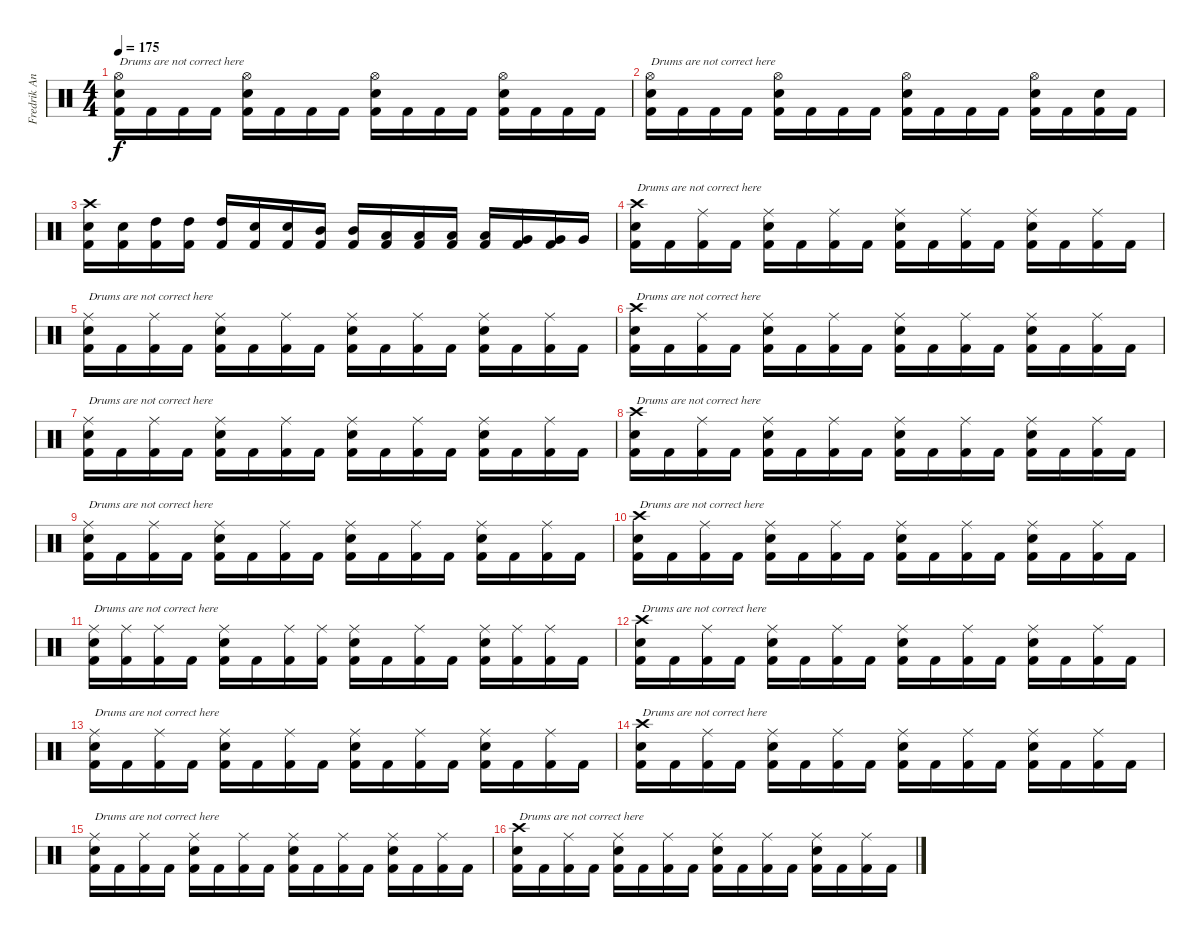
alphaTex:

\track ("Fredrik Andersson" "Fredrik An") {instrument percussion}
\staff {score}
\articulation defaults
\ts (4 4)
\tempo 175
\clef neutral
\ks c
("Hi-Hat (open)" "Electric Snare (hit)" "Kick (hit) 2").16{txt "Drums are not correct here" dy f} "Kick (hit) 2".16 "Kick (hit) 2".16 "Kick (hit) 2".16 ("Hi-Hat (open)" "Electric Snare (hit)" "Kick (hit) 2").16 "Kick (hit) 2".16 "Kick (hit) 2".16 "Kick (hit) 2".16 ("Hi-Hat (open)" "Electric Snare (hit)" "Kick (hit) 2").16 "Kick (hit) 2".16 "Kick (hit) 2".16 "Kick (hit) 2".16 ("Hi-Hat (open)" "Electric Snare (hit)" "Kick (hit) 2").16 "Kick (hit) 2".16 "Kick (hit) 2".16 "Kick (hit) 2".16 |
("Hi-Hat (open)" "Electric Snare (hit)" "Kick (hit) 2").16{txt "Drums are not correct here"} "Kick (hit) 2".16 "Kick (hit) 2".16 "Kick (hit) 2".16 ("Hi-Hat (open)" "Electric Snare (hit)" "Kick (hit) 2").16 "Kick (hit) 2".16 "Kick (hit) 2".16 "Kick (hit) 2".16 ("Hi-Hat (open)" "Electric Snare (hit)" "Kick (hit) 2").16 "Kick (hit) 2".16 "Kick (hit) 2".16 "Kick (hit) 2".16 ("Hi-Hat (open)" "Electric Snare (hit)" "Kick (hit) 2").16 "Kick (hit) 2".16 ("Electric Snare (hit)" "Kick (hit) 2").16 "Kick (hit) 2".16 |
("Crash high (hit)" "Electric Snare (hit)" "Kick (hit) 2").16 ("Electric Snare (hit)" "Kick (hit) 2").16 ("High Tom (hit)" "Kick (hit) 2").16 ("High Tom (hit)" "Kick (hit) 2").16 ("High Tom (hit)" "Kick (hit) 2").16 ("Electric Snare (hit)" "Kick (hit) 2").16 ("Electric Snare (hit)" "Kick (hit) 2").16 ("Mid Tom (hit)" "Kick (hit) 2").16 ("Mid Tom (hit)" "Kick (hit) 2").16 ("Low Tom (hit)" "Kick (hit) 2").16 ("Low Tom (hit)" "Kick (hit) 2").16 ("Low Tom (hit)" "Kick (hit) 2").16 ("Low Tom (hit)" "Kick (hit) 2").16 ("Very Low Tom (hit)" "Kick (hit) 2").16 ("Very Low Tom (hit)" "Kick (hit) 2").16 "Very Low Tom (hit)".16 |
("Crash high (hit)" "Electric Snare (hit)" "Kick (hit) 2").16{txt "Drums are not correct here"} "Kick (hit) 2".16 ("Ride (middle)" "Kick (hit) 2").16 "Kick (hit) 2".16 ("Ride (middle)" "Electric Snare (hit)" "Kick (hit) 2").16 "Kick (hit) 2".16 ("Ride (middle)" "Kick (hit) 2").16 "Kick (hit) 2".16 ("Ride (middle)" "Electric Snare (hit)" "Kick (hit) 2").16 "Kick (hit) 2".16 ("Ride (middle)" "Kick (hit) 2").16 "Kick (hit) 2".16 ("Ride (middle)" "Electric Snare (hit)" "Kick (hit) 2").16 "Kick (hit) 2".16 ("Ride (middle)" "Kick (hit) 2").16 "Kick (hit) 2".16 |
("Ride (middle)" "Electric Snare (hit)" "Kick (hit) 2").16{txt "Drums are not correct here"} "Kick (hit) 2".16 ("Ride (middle)" "Kick (hit) 2").16 "Kick (hit) 2".16 ("Ride (middle)" "Electric Snare (hit)" "Kick (hit) 2").16 "Kick (hit) 2".16 ("Ride (middle)" "Kick (hit) 2").16 "Kick (hit) 2".16 ("Ride (middle)" "Electric Snare (hit)" "Kick (hit) 2").16 "Kick (hit) 2".16 ("Ride (middle)" "Kick (hit) 2").16 "Kick (hit) 2".16 ("Ride (middle)" "Electric Snare (hit)" "Kick (hit) 2").16 "Kick (hit) 2".16 ("Ride (middle)" "Kick (hit) 2").16 "Kick (hit) 2".16 |
("Crash high (hit)" "Electric Snare (hit)" "Kick (hit) 2").16{txt "Drums are not correct here"} "Kick (hit) 2".16 ("Ride (middle)" "Kick (hit) 2").16 "Kick (hit) 2".16 ("Ride (middle)" "Electric Snare (hit)" "Kick (hit) 2").16 "Kick (hit) 2".16 ("Ride (middle)" "Kick (hit) 2").16 "Kick (hit) 2".16 ("Ride (middle)" "Electric Snare (hit)" "Kick (hit) 2").16 "Kick (hit) 2".16 ("Ride (middle)" "Kick (hit) 2").16 "Kick (hit) 2".16 ("Ride (middle)" "Electric Snare (hit)" "Kick (hit) 2").16 "Kick (hit) 2".16 ("Ride (middle)" "Kick (hit) 2").16 "Kick (hit) 2".16 |
("Ride (middle)" "Electric Snare (hit)" "Kick (hit) 2").16{txt "Drums are not correct here"} "Kick (hit) 2".16 ("Ride (middle)" "Kick (hit) 2").16 "Kick (hit) 2".16 ("Ride (middle)" "Electric Snare (hit)" "Kick (hit) 2").16 "Kick (hit) 2".16 ("Ride (middle)" "Kick (hit) 2").16 "Kick (hit) 2".16 ("Ride (middle)" "Electric Snare (hit)" "Kick (hit) 2").16 "Kick (hit) 2".16 ("Ride (middle)" "Kick (hit) 2").16 "Kick (hit) 2".16 ("Ride (middle)" "Electric Snare (hit)" "Kick (hit) 2").16 "Kick (hit) 2".16 ("Ride (middle)" "Kick (hit) 2").16 "Kick (hit) 2".16 |
("Crash high (hit)" "Electric Snare (hit)" "Kick (hit) 2").16{txt "Drums are not correct here"} "Kick (hit) 2".16 ("Ride (middle)" "Kick (hit) 2").16 "Kick (hit) 2".16 ("Ride (middle)" "Electric Snare (hit)" "Kick (hit) 2").16 "Kick (hit) 2".16 ("Ride (middle)" "Kick (hit) 2").16 "Kick (hit) 2".16 ("Ride (middle)" "Electric Snare (hit)" "Kick (hit) 2").16 "Kick (hit) 2".16 ("Ride (middle)" "Kick (hit) 2").16 "Kick (hit) 2".16 ("Ride (middle)" "Electric Snare (hit)" "Kick (hit) 2").16 "Kick (hit) 2".16 ("Ride (middle)" "Kick (hit) 2").16 "Kick (hit) 2".16 |
("Ride (middle)" "Electric Snare (hit)" "Kick (hit) 2").16{txt "Drums are not correct here"} "Kick (hit) 2".16 ("Ride (middle)" "Kick (hit) 2").16 "Kick (hit) 2".16 ("Ride (middle)" "Electric Snare (hit)" "Kick (hit) 2").16 "Kick (hit) 2".16 ("Ride (middle)" "Kick (hit) 2").16 "Kick (hit) 2".16 ("Ride (middle)" "Electric Snare (hit)" "Kick (hit) 2").16 "Kick (hit) 2".16 ("Ride (middle)" "Kick (hit) 2").16 "Kick (hit) 2".16 ("Ride (middle)" "Electric Snare (hit)" "Kick (hit) 2").16 "Kick (hit) 2".16 ("Ride (middle)" "Kick (hit) 2").16 "Kick (hit) 2".16 |
("Crash high (hit)" "Electric Snare (hit)" "Kick (hit) 2").16{txt "Drums are not correct here"} "Kick (hit) 2".16 ("Ride (middle)" "Kick (hit) 2").16 "Kick (hit) 2".16 ("Ride (middle)" "Electric Snare (hit)" "Kick (hit) 2").16 "Kick (hit) 2".16 ("Ride (middle)" "Kick (hit) 2").16 "Kick (hit) 2".16 ("Ride (middle)" "Electric Snare (hit)" "Kick (hit) 2").16 "Kick (hit) 2".16 ("Ride (middle)" "Kick (hit) 2").16 "Kick (hit) 2".16 ("Ride (middle)" "Electric Snare (hit)" "Kick (hit) 2").16 "Kick (hit) 2".16 ("Ride (middle)" "Kick (hit) 2").16 "Kick (hit) 2".16 |
("Ride (middle)" "Electric Snare (hit)" "Kick (hit) 2").16{txt "Drums are not correct here"} ("Ride (middle)" "Kick (hit) 2").16 ("Ride (middle)" "Kick (hit) 2").16 "Kick (hit) 2".16 ("Ride (middle)" "Electric Snare (hit)" "Kick (hit) 2").16 "Kick (hit) 2".16 ("Ride (middle)" "Kick (hit) 2").16 ("Ride (middle)" "Kick (hit) 2").16 ("Ride (middle)" "Electric Snare (hit)" "Kick (hit) 2").16 "Kick (hit) 2".16 ("Ride (middle)" "Kick (hit) 2").16 "Kick (hit) 2".16 ("Ride (middle)" "Electric Snare (hit)" "Kick (hit) 2").16 ("Ride (middle)" "Kick (hit) 2").16 ("Ride (middle)" "Kick (hit) 2").16 "Kick (hit) 2".16 |
("Crash high (hit)" "Electric Snare (hit)" "Kick (hit) 2").16{txt "Drums are not correct here"} "Kick (hit) 2".16 ("Ride (middle)" "Kick (hit) 2").16 "Kick (hit) 2".16 ("Ride (middle)" "Electric Snare (hit)" "Kick (hit) 2").16 "Kick (hit) 2".16 ("Ride (middle)" "Kick (hit) 2").16 "Kick (hit) 2".16 ("Ride (middle)" "Electric Snare (hit)" "Kick (hit) 2").16 "Kick (hit) 2".16 ("Ride (middle)" "Kick (hit) 2").16 "Kick (hit) 2".16 ("Ride (middle)" "Electric Snare (hit)" "Kick (hit) 2").16 "Kick (hit) 2".16 ("Ride (middle)" "Kick (hit) 2").16 "Kick (hit) 2".16 |
("Ride (middle)" "Electric Snare (hit)" "Kick (hit) 2").16{txt "Drums are not correct here"} "Kick (hit) 2".16 ("Ride (middle)" "Kick (hit) 2").16 "Kick (hit) 2".16 ("Ride (middle)" "Electric Snare (hit)" "Kick (hit) 2").16 "Kick (hit) 2".16 ("Ride (middle)" "Kick (hit) 2").16 "Kick (hit) 2".16 ("Ride (middle)" "Electric Snare (hit)" "Kick (hit) 2").16 "Kick (hit) 2".16 ("Ride (middle)" "Kick (hit) 2").16 "Kick (hit) 2".16 ("Ride (middle)" "Electric Snare (hit)" "Kick (hit) 2").16 "Kick (hit) 2".16 ("Ride (middle)" "Kick (hit) 2").16 "Kick (hit) 2".16 |
("Crash high (hit)" "Electric Snare (hit)" "Kick (hit) 2").16{txt "Drums are not correct here"} "Kick (hit) 2".16 ("Ride (middle)" "Kick (hit) 2").16 "Kick (hit) 2".16 ("Ride (middle)" "Electric Snare (hit)" "Kick (hit) 2").16 "Kick (hit) 2".16 ("Ride (middle)" "Kick (hit) 2").16 "Kick (hit) 2".16 ("Ride (middle)" "Electric Snare (hit)" "Kick (hit) 2").16 "Kick (hit) 2".16 ("Ride (middle)" "Kick (hit) 2").16 "Kick (hit) 2".16 ("Ride (middle)" "Electric Snare (hit)" "Kick (hit) 2").16 "Kick (hit) 2".16 ("Ride (middle)" "Kick (hit) 2").16 "Kick (hit) 2".16 |
("Ride (middle)" "Electric Snare (hit)" "Kick (hit) 2").16{txt "Drums are not correct here"} "Kick (hit) 2".16 ("Ride (middle)" "Kick (hit) 2").16 "Kick (hit) 2".16 ("Ride (middle)" "Electric Snare (hit)" "Kick (hit) 2").16 "Kick (hit) 2".16 ("Ride (middle)" "Kick (hit) 2").16 "Kick (hit) 2".16 ("Ride (middle)" "Electric Snare (hit)" "Kick (hit) 2").16 "Kick (hit) 2".16 ("Ride (middle)" "Kick (hit) 2").16 "Kick (hit) 2".16 ("Ride (middle)" "Electric Snare (hit)" "Kick (hit) 2").16 "Kick (hit) 2".16 ("Ride (middle)" "Kick (hit) 2").16 "Kick (hit) 2".16 |
("Crash high (hit)" "Electric Snare (hit)" "Kick (hit) 2").16{txt "Drums are not correct here"} "Kick (hit) 2".16 ("Ride (middle)" "Kick (hit) 2").16 "Kick (hit) 2".16 ("Ride (middle)" "Electric Snare (hit)" "Kick (hit) 2").16 "Kick (hit) 2".16 ("Ride (middle)" "Kick (hit) 2").16 "Kick (hit) 2".16 ("Ride (middle)" "Electric Snare (hit)" "Kick (hit) 2").16 "Kick (hit) 2".16 ("Ride (middle)" "Kick (hit) 2").16 "Kick (hit) 2".16 ("Ride (middle)" "Electric Snare (hit)" "Kick (hit) 2").16 "Kick (hit) 2".16 ("Ride (middle)" "Kick (hit) 2").16 "Kick (hit) 2".16
